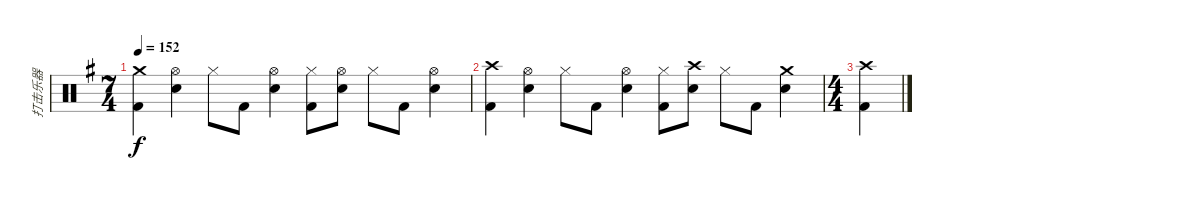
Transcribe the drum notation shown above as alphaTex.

\track ("打击乐器" "打击乐器") {instrument percussion}
\staff {score}
\articulation defaults
\ts (7 4)
\tempo 152
\clef neutral
\ks g
("Crash medium (hit)" "Kick (hit) 2").4{dy f} ("Hi-Hat (open)" "Metronome (bell)").4 "Hi-Hat (closed)".8 "Kick (hit) 2".8 ("Hi-Hat (open)" "Metronome (bell)").4 ("Hi-Hat (closed)" "Kick (hit) 2").8 ("Hi-Hat (open)" "Metronome (bell)").8 "Hi-Hat (closed)".8 "Kick (hit) 2".8 ("Hi-Hat (open)" "Metronome (bell)").4 |
("Crash high (hit)" "Kick (hit) 2").4 ("Hi-Hat (open)" "Metronome (bell)").4 "Hi-Hat (closed)".8 "Kick (hit) 2".8 ("Hi-Hat (open)" "Metronome (bell)").4 ("Hi-Hat (closed)" "Kick (hit) 2").8 ("Crash high (hit)" "Metronome (bell)").8 "Hi-Hat (closed)".8 "Kick (hit) 2".8 ("Crash medium (hit)" "Metronome (bell)").4 |
\ts (4 4)
("Crash high (hit)" "Kick (hit) 2").4
